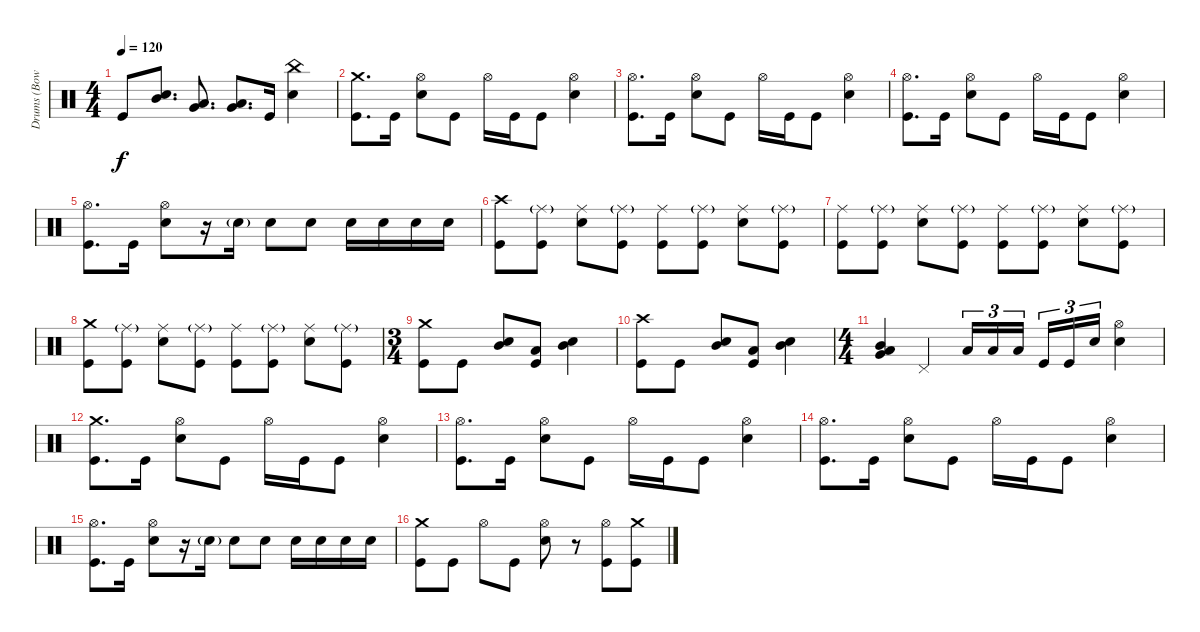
\track ("Drums (Bowders)" "Drums (Bow") {instrument percussion}
\staff {score}
\articulation defaults
\ts (4 4)
\tempo 120
\clef neutral
\ks c "Kick (hit)".8{dy f}
("Snare (hit) 2" "Mid Tom (hit)").8{d} ("Low Tom (hit)" "Very Low Tom (hit)").8{d} ("Low Floor Tom (hit)" "Very Low Tom (hit)").8{d} "Kick (hit)".16 ("Snare (hit) 2" "China (hit)").4 |
("Kick (hit)" "Crash medium (hit)").8{d} "Kick (hit)".16 ("Snare (hit) 2" "Hi-Hat (open)").8 "Kick (hit)".8 "Hi-Hat (open)".16 "Kick (hit)".16 "Kick (hit)".8 ("Snare (hit) 2" "Hi-Hat (open)").4 |
("Kick (hit)" "Hi-Hat (open)").8{d} "Kick (hit)".16 ("Snare (hit) 2" "Hi-Hat (open)").8 "Kick (hit)".8 "Hi-Hat (open)".16 "Kick (hit)".16 "Kick (hit)".8 ("Snare (hit) 2" "Hi-Hat (open)").4 |
("Kick (hit)" "Hi-Hat (open)").8{d} "Kick (hit)".16 ("Snare (hit) 2" "Hi-Hat (open)").8 "Kick (hit)".8 "Hi-Hat (open)".16 "Kick (hit)".16 "Kick (hit)".8 ("Snare (hit) 2" "Hi-Hat (open)").4 |
("Kick (hit)" "Hi-Hat (open)").8{d} "Kick (hit)".16 ("Snare (hit) 2" "Hi-Hat (open)").8 r.16 "Snare (hit) 2"{g}.16 "Snare (hit) 2".8 "Snare (hit) 2".8 "Snare (hit) 2".16 "Snare (hit) 2".16 "Snare (hit) 2".16 "Snare (hit) 2".16 |
("Kick (hit)" "Crash high (hit)").8 ("Kick (hit)" "Ride (middle)"{g}).8 ("Snare (hit) 2" "Ride (middle)").8 ("Kick (hit)" "Ride (middle)"{g}).8 ("Kick (hit)" "Ride (middle)").8 ("Kick (hit)" "Ride (middle)"{g}).8 ("Snare (hit) 2" "Ride (middle)").8 ("Kick (hit)" "Ride (middle)"{g}).8 |
("Kick (hit)" "Ride (middle)").8 ("Kick (hit)" "Ride (middle)"{g}).8 ("Snare (hit) 2" "Ride (middle)").8 ("Kick (hit)" "Ride (middle)"{g}).8 ("Kick (hit)" "Ride (middle)").8 ("Kick (hit)" "Ride (middle)"{g}).8 ("Snare (hit) 2" "Ride (middle)").8 ("Kick (hit)" "Ride (middle)"{g}).8 |
("Kick (hit)" "Crash medium (hit)").8 ("Kick (hit)" "Ride (middle)"{g}).8 ("Snare (hit) 2" "Ride (middle)").8 ("Kick (hit)" "Ride (middle)"{g}).8 ("Kick (hit)" "Ride (middle)").8 ("Kick (hit)" "Ride (middle)"{g}).8 ("Snare (hit) 2" "Ride (middle)").8 ("Kick (hit)" "Ride (middle)"{g}).8 |
\ts (3 4)
("Kick (hit)" "Crash medium (hit)").8 "Kick (hit)".8 ("Snare (hit) 2" "Mid Tom (hit)").8 ("Low Floor Tom (hit)" "Kick (hit)").8 ("Snare (hit) 2" "Mid Tom (hit)").4 |
("Kick (hit)" "Crash high (hit)").8 "Kick (hit)".8 ("Snare (hit) 2" "Mid Tom (hit)").8 ("Low Floor Tom (hit)" "Kick (hit)").8 ("Snare (hit) 2" "Mid Tom (hit)").4 |
\ts (4 4)
("Very Low Tom (hit)" "Low Floor Tom (hit)" "Mid Tom (hit)").4 "Pedal Hi-Hat (hit)".4 "Low Floor Tom (hit)".16{tu (3 2)} "Low Floor Tom (hit)".16{tu (3 2)} "Low Floor Tom (hit)".16{tu (3 2)} "Kick (hit)".16{tu (3 2)} "Kick (hit)".16{tu (3 2)} "Snare (hit) 2".16{tu (3 2)} ("Snare (hit) 2" "Hi-Hat (open)").4 |
("Kick (hit)" "Crash medium (hit)").8{d} "Kick (hit)".16 ("Snare (hit) 2" "Hi-Hat (open)").8 "Kick (hit)".8 "Hi-Hat (open)".16 "Kick (hit)".16 "Kick (hit)".8 ("Snare (hit) 2" "Hi-Hat (open)").4 |
("Kick (hit)" "Hi-Hat (open)").8{d} "Kick (hit)".16 ("Snare (hit) 2" "Hi-Hat (open)").8 "Kick (hit)".8 "Hi-Hat (open)".16 "Kick (hit)".16 "Kick (hit)".8 ("Snare (hit) 2" "Hi-Hat (open)").4 |
("Kick (hit)" "Hi-Hat (open)").8{d} "Kick (hit)".16 ("Snare (hit) 2" "Hi-Hat (open)").8 "Kick (hit)".8 "Hi-Hat (open)".16 "Kick (hit)".16 "Kick (hit)".8 ("Snare (hit) 2" "Hi-Hat (open)").4 |
("Kick (hit)" "Hi-Hat (open)").8{d} "Kick (hit)".16 ("Snare (hit) 2" "Hi-Hat (open)").8 r.16 "Snare (hit) 2"{g}.16 "Snare (hit) 2".8 "Snare (hit) 2".8 "Snare (hit) 2".16 "Snare (hit) 2".16 "Snare (hit) 2".16 "Snare (hit) 2".16 |
("Kick (hit)" "Crash medium (hit)").8 "Kick (hit)".8 "Hi-Hat (open)".8 "Kick (hit)".8 ("Snare (hit) 2" "Hi-Hat (open)").8 r.8 ("Kick (hit)" "Hi-Hat (open)").8 ("Kick (hit)" "Crash medium (hit)").8
